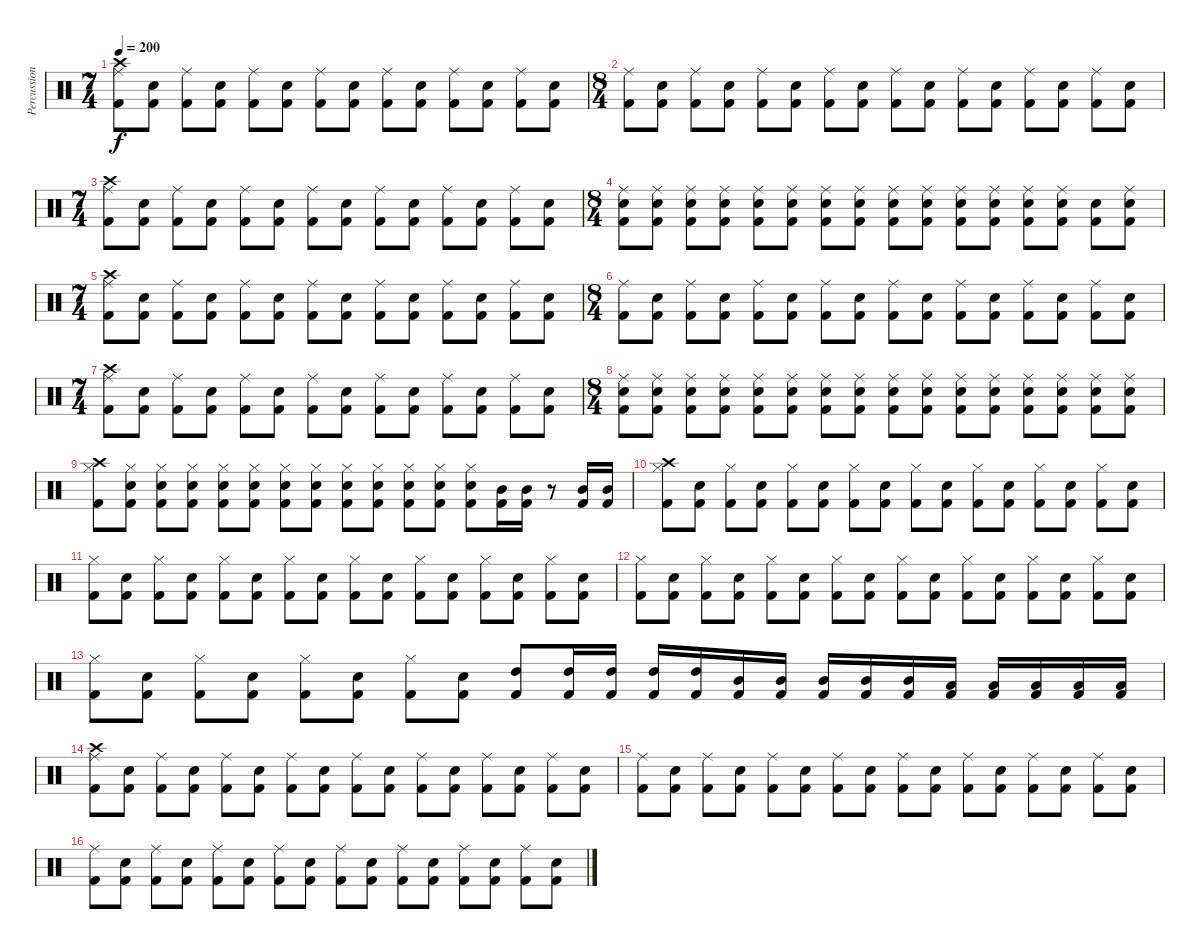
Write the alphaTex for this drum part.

\track ("Percussion" "Percussion") {instrument percussion}
\staff {score}
\articulation defaults
\ts (7 4)
\tempo 200
\clef neutral
\ks c
("Crash high (hit)" "Ride (middle)" "Kick (hit) 2").8{dy f} ("Electric Snare (hit)" "Kick (hit) 2").8 ("Ride (middle)" "Kick (hit) 2").8 ("Electric Snare (hit)" "Kick (hit) 2").8 ("Ride (middle)" "Kick (hit) 2").8 ("Electric Snare (hit)" "Kick (hit) 2").8 ("Ride (middle)" "Kick (hit) 2").8 ("Electric Snare (hit)" "Kick (hit) 2").8 ("Ride (middle)" "Kick (hit) 2").8 ("Electric Snare (hit)" "Kick (hit) 2").8 ("Ride (middle)" "Kick (hit) 2").8 ("Electric Snare (hit)" "Kick (hit) 2").8 ("Ride (middle)" "Kick (hit) 2").8 ("Electric Snare (hit)" "Kick (hit) 2").8 |
\ts (8 4)
("Ride (middle)" "Kick (hit) 2").8 ("Electric Snare (hit)" "Kick (hit) 2").8 ("Ride (middle)" "Kick (hit) 2").8 ("Electric Snare (hit)" "Kick (hit) 2").8 ("Ride (middle)" "Kick (hit) 2").8 ("Electric Snare (hit)" "Kick (hit) 2").8 ("Ride (middle)" "Kick (hit) 2").8 ("Electric Snare (hit)" "Kick (hit) 2").8 ("Ride (middle)" "Kick (hit) 2").8 ("Electric Snare (hit)" "Kick (hit) 2").8 ("Ride (middle)" "Kick (hit) 2").8 ("Electric Snare (hit)" "Kick (hit) 2").8 ("Ride (middle)" "Kick (hit) 2").8 ("Electric Snare (hit)" "Kick (hit) 2").8 ("Ride (middle)" "Kick (hit) 2").8 ("Electric Snare (hit)" "Kick (hit) 2").8 |
\ts (7 4)
("Crash high (hit)" "Ride (middle)" "Kick (hit) 2").8 ("Electric Snare (hit)" "Kick (hit) 2").8 ("Ride (middle)" "Kick (hit) 2").8 ("Electric Snare (hit)" "Kick (hit) 2").8 ("Ride (middle)" "Kick (hit) 2").8 ("Electric Snare (hit)" "Kick (hit) 2").8 ("Ride (middle)" "Kick (hit) 2").8 ("Electric Snare (hit)" "Kick (hit) 2").8 ("Ride (middle)" "Kick (hit) 2").8 ("Electric Snare (hit)" "Kick (hit) 2").8 ("Ride (middle)" "Kick (hit) 2").8 ("Electric Snare (hit)" "Kick (hit) 2").8 ("Ride (middle)" "Kick (hit) 2").8 ("Electric Snare (hit)" "Kick (hit) 2").8 |
\ts (8 4)
("Ride (middle)" "Electric Snare (hit)" "Kick (hit) 2").8 ("Ride (middle)" "Electric Snare (hit)" "Kick (hit) 2").8 ("Ride (middle)" "Electric Snare (hit)" "Kick (hit) 2").8 ("Ride (middle)" "Electric Snare (hit)" "Kick (hit) 2").8 ("Ride (middle)" "Electric Snare (hit)" "Kick (hit) 2").8 ("Ride (middle)" "Electric Snare (hit)" "Kick (hit) 2").8 ("Ride (middle)" "Electric Snare (hit)" "Kick (hit) 2").8 ("Ride (middle)" "Electric Snare (hit)" "Kick (hit) 2").8 ("Ride (middle)" "Electric Snare (hit)" "Kick (hit) 2").8 ("Ride (middle)" "Electric Snare (hit)" "Kick (hit) 2").8 ("Ride (middle)" "Electric Snare (hit)" "Kick (hit) 2").8 ("Ride (middle)" "Electric Snare (hit)" "Kick (hit) 2").8 ("Ride (middle)" "Electric Snare (hit)" "Kick (hit) 2").8 ("Ride (middle)" "Electric Snare (hit)" "Kick (hit) 2").8 ("Electric Snare (hit)" "Kick (hit) 2").8 ("Ride (middle)" "Electric Snare (hit)" "Kick (hit) 2").8 |
\ts (7 4)
("Crash high (hit)" "Ride (middle)" "Kick (hit) 2").8 ("Electric Snare (hit)" "Kick (hit) 2").8 ("Ride (middle)" "Kick (hit) 2").8 ("Electric Snare (hit)" "Kick (hit) 2").8 ("Ride (middle)" "Kick (hit) 2").8 ("Electric Snare (hit)" "Kick (hit) 2").8 ("Ride (middle)" "Kick (hit) 2").8 ("Electric Snare (hit)" "Kick (hit) 2").8 ("Ride (middle)" "Kick (hit) 2").8 ("Electric Snare (hit)" "Kick (hit) 2").8 ("Ride (middle)" "Kick (hit) 2").8 ("Electric Snare (hit)" "Kick (hit) 2").8 ("Ride (middle)" "Kick (hit) 2").8 ("Electric Snare (hit)" "Kick (hit) 2").8 |
\ts (8 4)
("Ride (middle)" "Kick (hit) 2").8 ("Electric Snare (hit)" "Kick (hit) 2").8 ("Ride (middle)" "Kick (hit) 2").8 ("Electric Snare (hit)" "Kick (hit) 2").8 ("Ride (middle)" "Kick (hit) 2").8 ("Electric Snare (hit)" "Kick (hit) 2").8 ("Ride (middle)" "Kick (hit) 2").8 ("Electric Snare (hit)" "Kick (hit) 2").8 ("Ride (middle)" "Kick (hit) 2").8 ("Electric Snare (hit)" "Kick (hit) 2").8 ("Ride (middle)" "Kick (hit) 2").8 ("Electric Snare (hit)" "Kick (hit) 2").8 ("Ride (middle)" "Kick (hit) 2").8 ("Electric Snare (hit)" "Kick (hit) 2").8 ("Ride (middle)" "Kick (hit) 2").8 ("Electric Snare (hit)" "Kick (hit) 2").8 |
\ts (7 4)
("Crash high (hit)" "Ride (middle)" "Kick (hit) 2").8 ("Electric Snare (hit)" "Kick (hit) 2").8 ("Ride (middle)" "Kick (hit) 2").8 ("Electric Snare (hit)" "Kick (hit) 2").8 ("Ride (middle)" "Kick (hit) 2").8 ("Electric Snare (hit)" "Kick (hit) 2").8 ("Ride (middle)" "Kick (hit) 2").8 ("Electric Snare (hit)" "Kick (hit) 2").8 ("Ride (middle)" "Kick (hit) 2").8 ("Electric Snare (hit)" "Kick (hit) 2").8 ("Ride (middle)" "Kick (hit) 2").8 ("Electric Snare (hit)" "Kick (hit) 2").8 ("Ride (middle)" "Kick (hit) 2").8 ("Electric Snare (hit)" "Kick (hit) 2").8 |
\ts (8 4)
("Ride (middle)" "Electric Snare (hit)" "Kick (hit) 2").8 ("Ride (middle)" "Electric Snare (hit)" "Kick (hit) 2").8 ("Ride (middle)" "Electric Snare (hit)" "Kick (hit) 2").8 ("Ride (middle)" "Electric Snare (hit)" "Kick (hit) 2").8 ("Ride (middle)" "Electric Snare (hit)" "Kick (hit) 2").8 ("Ride (middle)" "Electric Snare (hit)" "Kick (hit) 2").8 ("Ride (middle)" "Electric Snare (hit)" "Kick (hit) 2").8 ("Ride (middle)" "Electric Snare (hit)" "Kick (hit) 2").8 ("Ride (middle)" "Electric Snare (hit)" "Kick (hit) 2").8 ("Ride (middle)" "Electric Snare (hit)" "Kick (hit) 2").8 ("Ride (middle)" "Electric Snare (hit)" "Kick (hit) 2").8 ("Ride (middle)" "Electric Snare (hit)" "Kick (hit) 2").8 ("Ride (middle)" "Electric Snare (hit)" "Kick (hit) 2").8 ("Ride (middle)" "Electric Snare (hit)" "Kick (hit) 2").8 ("Ride (middle)" "Electric Snare (hit)" "Kick (hit) 2").8 ("Ride (middle)" "Electric Snare (hit)" "Kick (hit) 2").8 |
("Crash high (hit)" "Hi-Hat (closed)" "Kick (hit) 2").8 ("Hi-Hat (closed)" "Electric Snare (hit)" "Kick (hit) 2").8 ("Hi-Hat (closed)" "Electric Snare (hit)" "Kick (hit) 2").8 ("Hi-Hat (closed)" "Electric Snare (hit)" "Kick (hit) 2").8 ("Hi-Hat (closed)" "Electric Snare (hit)" "Kick (hit) 2").8 ("Hi-Hat (closed)" "Electric Snare (hit)" "Kick (hit) 2").8 ("Hi-Hat (closed)" "Electric Snare (hit)" "Kick (hit) 2").8 ("Hi-Hat (closed)" "Electric Snare (hit)" "Kick (hit) 2").8 ("Hi-Hat (closed)" "Electric Snare (hit)" "Kick (hit) 2").8 ("Hi-Hat (closed)" "Electric Snare (hit)" "Kick (hit) 2").8 ("Hi-Hat (closed)" "Electric Snare (hit)" "Kick (hit) 2").8 ("Hi-Hat (closed)" "Electric Snare (hit)" "Kick (hit) 2").8 ("Hi-Hat (closed)" "Electric Snare (hit)" "Kick (hit) 2").8 ("Mid Tom (hit)" "Kick (hit) 2").16 ("Mid Tom (hit)" "Kick (hit) 2").16 r.8 ("Mid Tom (hit)" "Kick (hit) 2").16 ("Mid Tom (hit)" "Kick (hit) 2").16 |
("Crash high (hit)" "Hi-Hat (closed)" "Kick (hit) 2").8 ("Electric Snare (hit)" "Kick (hit) 2").8 ("Hi-Hat (closed)" "Kick (hit) 2").8 ("Electric Snare (hit)" "Kick (hit) 2").8 ("Hi-Hat (closed)" "Kick (hit) 2").8 ("Electric Snare (hit)" "Kick (hit) 2").8 ("Hi-Hat (closed)" "Kick (hit) 2").8 ("Electric Snare (hit)" "Kick (hit) 2").8 ("Hi-Hat (closed)" "Kick (hit) 2").8 ("Electric Snare (hit)" "Kick (hit) 2").8 ("Hi-Hat (closed)" "Kick (hit) 2").8 ("Electric Snare (hit)" "Kick (hit) 2").8 ("Hi-Hat (closed)" "Kick (hit) 2").8 ("Electric Snare (hit)" "Kick (hit) 2").8 ("Hi-Hat (closed)" "Kick (hit) 2").8 ("Electric Snare (hit)" "Kick (hit) 2").8 |
("Hi-Hat (closed)" "Kick (hit) 2").8 ("Electric Snare (hit)" "Kick (hit) 2").8 ("Hi-Hat (closed)" "Kick (hit) 2").8 ("Electric Snare (hit)" "Kick (hit) 2").8 ("Hi-Hat (closed)" "Kick (hit) 2").8 ("Electric Snare (hit)" "Kick (hit) 2").8 ("Hi-Hat (closed)" "Kick (hit) 2").8 ("Electric Snare (hit)" "Kick (hit) 2").8 ("Hi-Hat (closed)" "Kick (hit) 2").8 ("Electric Snare (hit)" "Kick (hit) 2").8 ("Hi-Hat (closed)" "Kick (hit) 2").8 ("Electric Snare (hit)" "Kick (hit) 2").8 ("Hi-Hat (closed)" "Kick (hit) 2").8 ("Electric Snare (hit)" "Kick (hit) 2").8 ("Hi-Hat (closed)" "Kick (hit) 2").8 ("Electric Snare (hit)" "Kick (hit) 2").8 |
("Hi-Hat (closed)" "Kick (hit) 2").8 ("Electric Snare (hit)" "Kick (hit) 2").8 ("Hi-Hat (closed)" "Kick (hit) 2").8 ("Electric Snare (hit)" "Kick (hit) 2").8 ("Hi-Hat (closed)" "Kick (hit) 2").8 ("Electric Snare (hit)" "Kick (hit) 2").8 ("Hi-Hat (closed)" "Kick (hit) 2").8 ("Electric Snare (hit)" "Kick (hit) 2").8 ("Hi-Hat (closed)" "Kick (hit) 2").8 ("Electric Snare (hit)" "Kick (hit) 2").8 ("Hi-Hat (closed)" "Kick (hit) 2").8 ("Electric Snare (hit)" "Kick (hit) 2").8 ("Hi-Hat (closed)" "Kick (hit) 2").8 ("Electric Snare (hit)" "Kick (hit) 2").8 ("Hi-Hat (closed)" "Kick (hit) 2").8 ("Electric Snare (hit)" "Kick (hit) 2").8 |
("Hi-Hat (closed)" "Kick (hit) 2").8 ("Electric Snare (hit)" "Kick (hit) 2").8 ("Hi-Hat (closed)" "Kick (hit) 2").8 ("Electric Snare (hit)" "Kick (hit) 2").8 ("Hi-Hat (closed)" "Kick (hit) 2").8 ("Electric Snare (hit)" "Kick (hit) 2").8 ("Hi-Hat (closed)" "Kick (hit) 2").8 ("Electric Snare (hit)" "Kick (hit) 2").8 ("High Tom (hit)" "Kick (hit) 2").8 ("High Tom (hit)" "Kick (hit) 2").16 ("High Tom (hit)" "Kick (hit) 2").16 ("High Tom (hit)" "Kick (hit) 2").16 ("High Tom (hit)" "Kick (hit) 2").16 ("Mid Tom (hit)" "Kick (hit) 2").16 ("Mid Tom (hit)" "Kick (hit) 2").16 ("Mid Tom (hit)" "Kick (hit) 2").16 ("Mid Tom (hit)" "Kick (hit) 2").16 ("Mid Tom (hit)" "Kick (hit) 2").16 ("Low Tom (hit)" "Kick (hit) 2").16 ("Low Tom (hit)" "Kick (hit) 2").16 ("Low Tom (hit)" "Kick (hit) 2").16 ("Low Tom (hit)" "Kick (hit) 2").16 ("Low Tom (hit)" "Kick (hit) 2").16 |
("Crash high (hit)" "Ride (middle)" "Kick (hit) 2").8 ("Electric Snare (hit)" "Kick (hit) 2").8 ("Ride (middle)" "Kick (hit) 2").8 ("Electric Snare (hit)" "Kick (hit) 2").8 ("Ride (middle)" "Kick (hit) 2").8 ("Electric Snare (hit)" "Kick (hit) 2").8 ("Ride (middle)" "Kick (hit) 2").8 ("Electric Snare (hit)" "Kick (hit) 2").8 ("Ride (middle)" "Kick (hit) 2").8 ("Electric Snare (hit)" "Kick (hit) 2").8 ("Ride (middle)" "Kick (hit) 2").8 ("Electric Snare (hit)" "Kick (hit) 2").8 ("Ride (middle)" "Kick (hit) 2").8 ("Electric Snare (hit)" "Kick (hit) 2").8 ("Ride (middle)" "Kick (hit) 2").8 ("Electric Snare (hit)" "Kick (hit) 2").8 |
("Ride (middle)" "Kick (hit) 2").8 ("Electric Snare (hit)" "Kick (hit) 2").8 ("Ride (middle)" "Kick (hit) 2").8 ("Electric Snare (hit)" "Kick (hit) 2").8 ("Ride (middle)" "Kick (hit) 2").8 ("Electric Snare (hit)" "Kick (hit) 2").8 ("Ride (middle)" "Kick (hit) 2").8 ("Electric Snare (hit)" "Kick (hit) 2").8 ("Ride (middle)" "Kick (hit) 2").8 ("Electric Snare (hit)" "Kick (hit) 2").8 ("Ride (middle)" "Kick (hit) 2").8 ("Electric Snare (hit)" "Kick (hit) 2").8 ("Ride (middle)" "Kick (hit) 2").8 ("Electric Snare (hit)" "Kick (hit) 2").8 ("Ride (middle)" "Kick (hit) 2").8 ("Electric Snare (hit)" "Kick (hit) 2").8 |
("Ride (middle)" "Kick (hit) 2").8 ("Electric Snare (hit)" "Kick (hit) 2").8 ("Ride (middle)" "Kick (hit) 2").8 ("Electric Snare (hit)" "Kick (hit) 2").8 ("Ride (middle)" "Kick (hit) 2").8 ("Electric Snare (hit)" "Kick (hit) 2").8 ("Ride (middle)" "Kick (hit) 2").8 ("Electric Snare (hit)" "Kick (hit) 2").8 ("Ride (middle)" "Kick (hit) 2").8 ("Electric Snare (hit)" "Kick (hit) 2").8 ("Ride (middle)" "Kick (hit) 2").8 ("Electric Snare (hit)" "Kick (hit) 2").8 ("Ride (middle)" "Kick (hit) 2").8 ("Electric Snare (hit)" "Kick (hit) 2").8 ("Ride (middle)" "Kick (hit) 2").8 ("Electric Snare (hit)" "Kick (hit) 2").8
